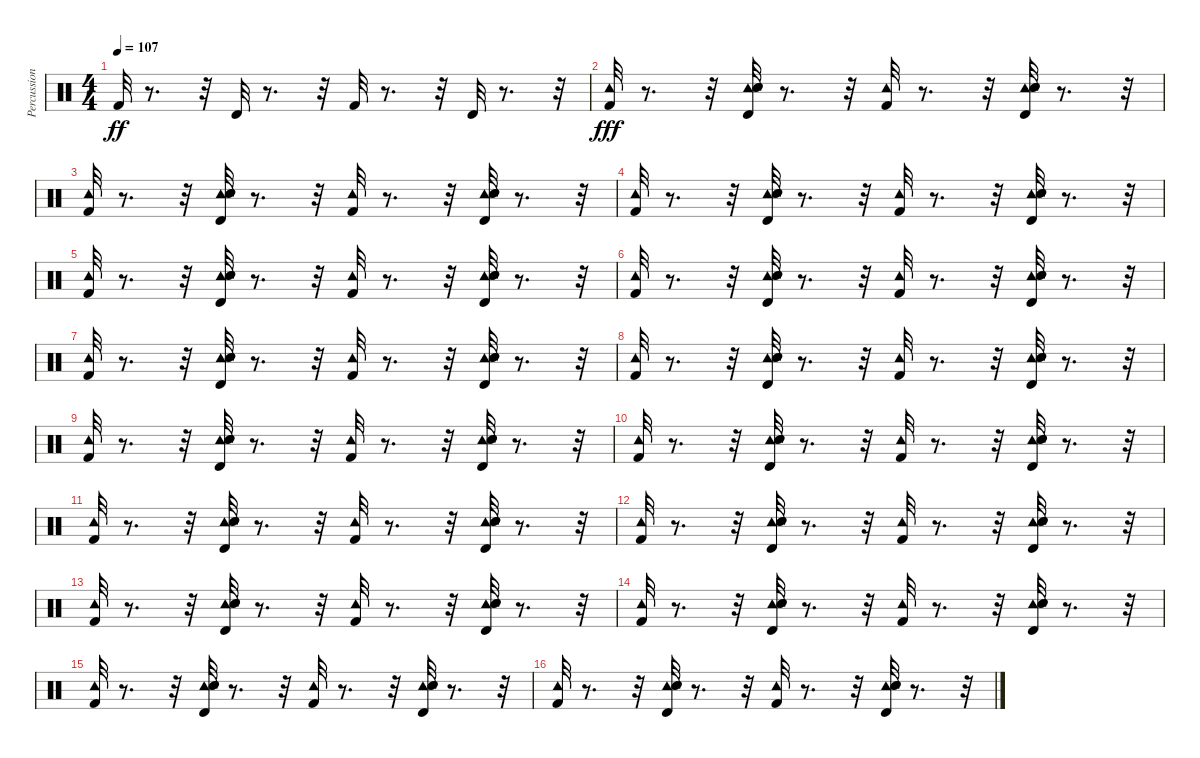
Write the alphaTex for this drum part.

\track ("Percussion" "Percussion") {instrument percussion}
\staff {score}
\articulation defaults
\ts (4 4)
\tempo 107
\clef neutral
\ks c "Kick (hit) 2".32{dy ff}
r.8{d} r.32 "Timbale high (hit)".32 r.8{d} r.32 "Kick (hit) 2".32 r.8{d} r.32 "Timbale high (hit)".32 r.8{d} r.32 |
("Tambourine (hit)" "Kick (hit) 2").32{dy fff} r.8{d} r.32 ("Tambourine (hit)" "Timbale high (hit)" "Electric Snare (hit)" "Snare (hit) 2").32 r.8{d} r.32 ("Tambourine (hit)" "Kick (hit) 2").32 r.8{d} r.32 ("Tambourine (hit)" "Timbale high (hit)" "Electric Snare (hit)" "Snare (hit) 2").32 r.8{d} r.32 |
("Tambourine (hit)" "Kick (hit) 2").32 r.8{d} r.32 ("Tambourine (hit)" "Timbale high (hit)" "Electric Snare (hit)" "Snare (hit) 2").32 r.8{d} r.32 ("Tambourine (hit)" "Kick (hit) 2").32 r.8{d} r.32 ("Tambourine (hit)" "Timbale high (hit)" "Electric Snare (hit)" "Snare (hit) 2").32 r.8{d} r.32 |
("Tambourine (hit)" "Kick (hit) 2").32 r.8{d} r.32 ("Tambourine (hit)" "Timbale high (hit)" "Electric Snare (hit)" "Snare (hit) 2").32 r.8{d} r.32 ("Tambourine (hit)" "Kick (hit) 2").32 r.8{d} r.32 ("Tambourine (hit)" "Timbale high (hit)" "Electric Snare (hit)" "Snare (hit) 2").32 r.8{d} r.32 |
("Tambourine (hit)" "Kick (hit) 2").32 r.8{d} r.32 ("Tambourine (hit)" "Timbale high (hit)" "Electric Snare (hit)" "Snare (hit) 2").32 r.8{d} r.32 ("Tambourine (hit)" "Kick (hit) 2").32 r.8{d} r.32 ("Tambourine (hit)" "Timbale high (hit)" "Electric Snare (hit)" "Snare (hit) 2").32 r.8{d} r.32 |
("Tambourine (hit)" "Kick (hit) 2").32 r.8{d} r.32 ("Tambourine (hit)" "Timbale high (hit)" "Electric Snare (hit)" "Snare (hit) 2").32 r.8{d} r.32 ("Tambourine (hit)" "Kick (hit) 2").32 r.8{d} r.32 ("Tambourine (hit)" "Timbale high (hit)" "Electric Snare (hit)" "Snare (hit) 2").32 r.8{d} r.32 |
("Tambourine (hit)" "Kick (hit) 2").32 r.8{d} r.32 ("Tambourine (hit)" "Timbale high (hit)" "Electric Snare (hit)" "Snare (hit) 2").32 r.8{d} r.32 ("Tambourine (hit)" "Kick (hit) 2").32 r.8{d} r.32 ("Tambourine (hit)" "Timbale high (hit)" "Electric Snare (hit)" "Snare (hit) 2").32 r.8{d} r.32 |
("Tambourine (hit)" "Kick (hit) 2").32 r.8{d} r.32 ("Tambourine (hit)" "Timbale high (hit)" "Electric Snare (hit)" "Snare (hit) 2").32 r.8{d} r.32 ("Tambourine (hit)" "Kick (hit) 2").32 r.8{d} r.32 ("Tambourine (hit)" "Timbale high (hit)" "Electric Snare (hit)" "Snare (hit) 2").32 r.8{d} r.32 |
("Tambourine (hit)" "Kick (hit) 2").32 r.8{d} r.32 ("Tambourine (hit)" "Timbale high (hit)" "Electric Snare (hit)" "Snare (hit) 2").32 r.8{d} r.32 ("Tambourine (hit)" "Kick (hit) 2").32 r.8{d} r.32 ("Tambourine (hit)" "Timbale high (hit)" "Electric Snare (hit)" "Snare (hit) 2").32 r.8{d} r.32 |
("Tambourine (hit)" "Kick (hit) 2").32 r.8{d} r.32 ("Tambourine (hit)" "Timbale high (hit)" "Electric Snare (hit)" "Snare (hit) 2").32 r.8{d} r.32 ("Tambourine (hit)" "Kick (hit) 2").32 r.8{d} r.32 ("Tambourine (hit)" "Timbale high (hit)" "Electric Snare (hit)" "Snare (hit) 2").32 r.8{d} r.32 |
("Tambourine (hit)" "Kick (hit) 2").32 r.8{d} r.32 ("Tambourine (hit)" "Timbale high (hit)" "Electric Snare (hit)" "Snare (hit) 2").32 r.8{d} r.32 ("Tambourine (hit)" "Kick (hit) 2").32 r.8{d} r.32 ("Tambourine (hit)" "Timbale high (hit)" "Electric Snare (hit)" "Snare (hit) 2").32 r.8{d} r.32 |
("Tambourine (hit)" "Kick (hit) 2").32 r.8{d} r.32 ("Tambourine (hit)" "Timbale high (hit)" "Electric Snare (hit)" "Snare (hit) 2").32 r.8{d} r.32 ("Tambourine (hit)" "Kick (hit) 2").32 r.8{d} r.32 ("Tambourine (hit)" "Timbale high (hit)" "Electric Snare (hit)" "Snare (hit) 2").32 r.8{d} r.32 |
("Tambourine (hit)" "Kick (hit) 2").32 r.8{d} r.32 ("Tambourine (hit)" "Timbale high (hit)" "Electric Snare (hit)" "Snare (hit) 2").32 r.8{d} r.32 ("Tambourine (hit)" "Kick (hit) 2").32 r.8{d} r.32 ("Tambourine (hit)" "Timbale high (hit)" "Electric Snare (hit)" "Snare (hit) 2").32 r.8{d} r.32 |
("Tambourine (hit)" "Kick (hit) 2").32 r.8{d} r.32 ("Tambourine (hit)" "Timbale high (hit)" "Electric Snare (hit)" "Snare (hit) 2").32 r.8{d} r.32 ("Tambourine (hit)" "Kick (hit) 2").32 r.8{d} r.32 ("Tambourine (hit)" "Timbale high (hit)" "Electric Snare (hit)" "Snare (hit) 2").32 r.8{d} r.32 |
("Tambourine (hit)" "Kick (hit) 2").32 r.8{d} r.32 ("Tambourine (hit)" "Timbale high (hit)" "Electric Snare (hit)" "Snare (hit) 2").32 r.8{d} r.32 ("Tambourine (hit)" "Kick (hit) 2").32 r.8{d} r.32 ("Tambourine (hit)" "Timbale high (hit)" "Electric Snare (hit)" "Snare (hit) 2").32 r.8{d} r.32 |
("Tambourine (hit)" "Kick (hit) 2").32 r.8{d} r.32 ("Tambourine (hit)" "Timbale high (hit)" "Electric Snare (hit)" "Snare (hit) 2").32 r.8{d} r.32 ("Tambourine (hit)" "Kick (hit) 2").32 r.8{d} r.32 ("Tambourine (hit)" "Timbale high (hit)" "Electric Snare (hit)" "Snare (hit) 2").32 r.8{d} r.32
